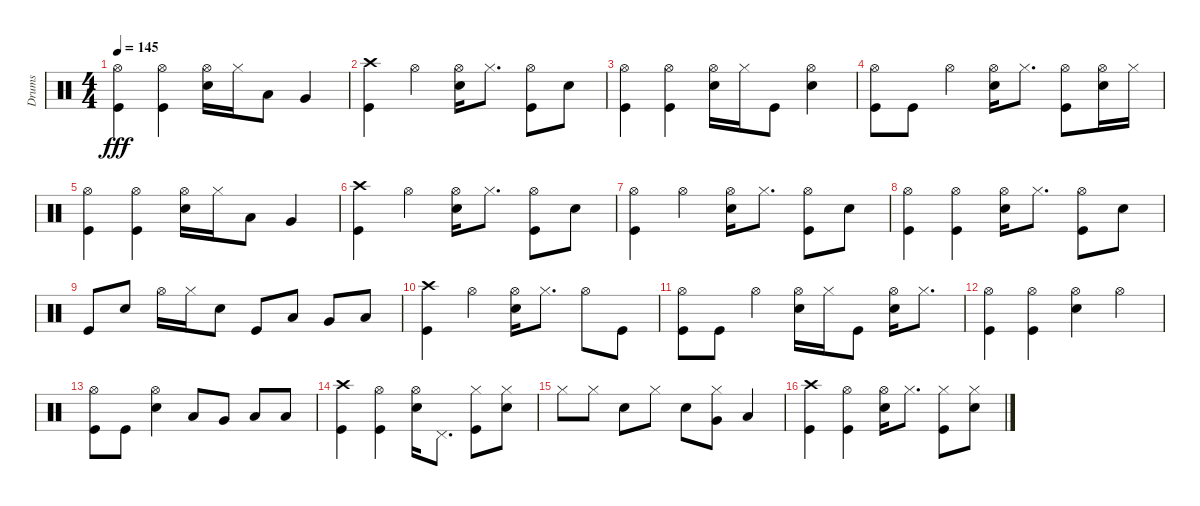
\track ("Drums" "Drums") {instrument percussion}
\staff {score}
\articulation defaults
\ts (4 4)
\tempo 145
\clef neutral
\ks c
("Hi-Hat (open)" "Kick (hit)").4{dy fff} ("Hi-Hat (open)" "Kick (hit)").4 ("Hi-Hat (open)" "Snare (hit) 2").16 "Hi-Hat (closed)".16 "Low Tom (hit)".8 "Very Low Tom (hit)".4 |
("Crash high (hit)" "Kick (hit)").4 "Hi-Hat (open)".4 ("Hi-Hat (open)" "Snare (hit) 2").16 "Hi-Hat (closed)".8{d} ("Hi-Hat (open)" "Kick (hit)").8 "Snare (hit) 2".8 |
("Hi-Hat (open)" "Kick (hit)").4 ("Hi-Hat (open)" "Kick (hit)").4 ("Hi-Hat (open)" "Snare (hit) 2").16 "Hi-Hat (closed)".16 "Kick (hit)".8 ("Hi-Hat (open)" "Snare (hit) 2").4 |
("Hi-Hat (open)" "Kick (hit)").8 "Kick (hit)".8 "Hi-Hat (open)".4 ("Hi-Hat (open)" "Snare (hit) 2").16 "Hi-Hat (closed)".8{d} ("Hi-Hat (open)" "Kick (hit)").8 ("Hi-Hat (open)" "Snare (hit) 2").16 "Hi-Hat (closed)".16 |
("Hi-Hat (open)" "Kick (hit)").4 ("Hi-Hat (open)" "Kick (hit)").4 ("Hi-Hat (open)" "Snare (hit) 2").16 "Hi-Hat (closed)".16 "Low Tom (hit)".8 "Very Low Tom (hit)".4 |
("Crash high (hit)" "Kick (hit)").4 "Hi-Hat (open)".4 ("Hi-Hat (open)" "Snare (hit) 2").16 "Hi-Hat (closed)".8{d} ("Hi-Hat (open)" "Kick (hit)").8 "Snare (hit) 2".8 |
("Hi-Hat (open)" "Kick (hit)").4 "Hi-Hat (open)".4 ("Hi-Hat (open)" "Snare (hit) 2").16 "Hi-Hat (closed)".8{d} ("Hi-Hat (open)" "Kick (hit)").8 "Snare (hit) 2".8 |
("Hi-Hat (open)" "Kick (hit)").4 ("Hi-Hat (open)" "Kick (hit)").4 ("Hi-Hat (open)" "Snare (hit) 2").16 "Hi-Hat (closed)".8{d} ("Hi-Hat (open)" "Kick (hit)").8 "Snare (hit) 2".8 |
"Kick (hit)".8 "Snare (hit) 2".8 "Hi-Hat (open)".16 "Hi-Hat (closed)".16 "Snare (hit) 2".8 "Kick (hit)".8 "Low Tom (hit)".8 "Very Low Tom (hit)".8 "Low Floor Tom (hit)".8 |
("Crash high (hit)" "Kick (hit)").4 "Hi-Hat (open)".4 ("Hi-Hat (open)" "Snare (hit) 2").16 "Hi-Hat (closed)".8{d} "Hi-Hat (open)".8 "Kick (hit)".8 |
("Hi-Hat (open)" "Kick (hit)").8 "Kick (hit)".8 "Hi-Hat (open)".4 ("Hi-Hat (open)" "Snare (hit) 2").16 "Hi-Hat (closed)".16 "Kick (hit)".8 ("Hi-Hat (open)" "Snare (hit) 2").16 "Hi-Hat (closed)".8{d} |
("Hi-Hat (open)" "Kick (hit)").4 ("Hi-Hat (open)" "Kick (hit)").4 ("Hi-Hat (open)" "Snare (hit) 2").4 "Hi-Hat (open)".4 |
("Hi-Hat (open)" "Kick (hit)").8 "Kick (hit)".8 ("Hi-Hat (open)" "Snare (hit) 2").4 "Low Tom (hit)".8 "Very Low Tom (hit)".8 "Low Floor Tom (hit)".8 "Low Floor Tom (hit)".8 |
("Crash high (hit)" "Kick (hit)").4 ("Hi-Hat (open)" "Kick (hit)").4 ("Hi-Hat (open)" "Snare (hit) 2").16 "Pedal Hi-Hat (hit)".8{d} ("Hi-Hat (closed)" "Kick (hit)").8 ("Hi-Hat (closed)" "Snare (hit) 2").8 |
"Hi-Hat (closed)".8 "Hi-Hat (closed)".8 "Snare (hit) 2".8 "Hi-Hat (closed)".8 "Snare (hit) 2".8 ("Hi-Hat (closed)" "Very Low Tom (hit)").8 "Low Floor Tom (hit)".4 |
("Crash high (hit)" "Kick (hit)").4 ("Hi-Hat (open)" "Kick (hit)").4 ("Hi-Hat (open)" "Snare (hit) 2").16 "Hi-Hat (closed)".8{d} ("Hi-Hat (closed)" "Kick (hit)").8 ("Hi-Hat (closed)" "Snare (hit) 2").8
